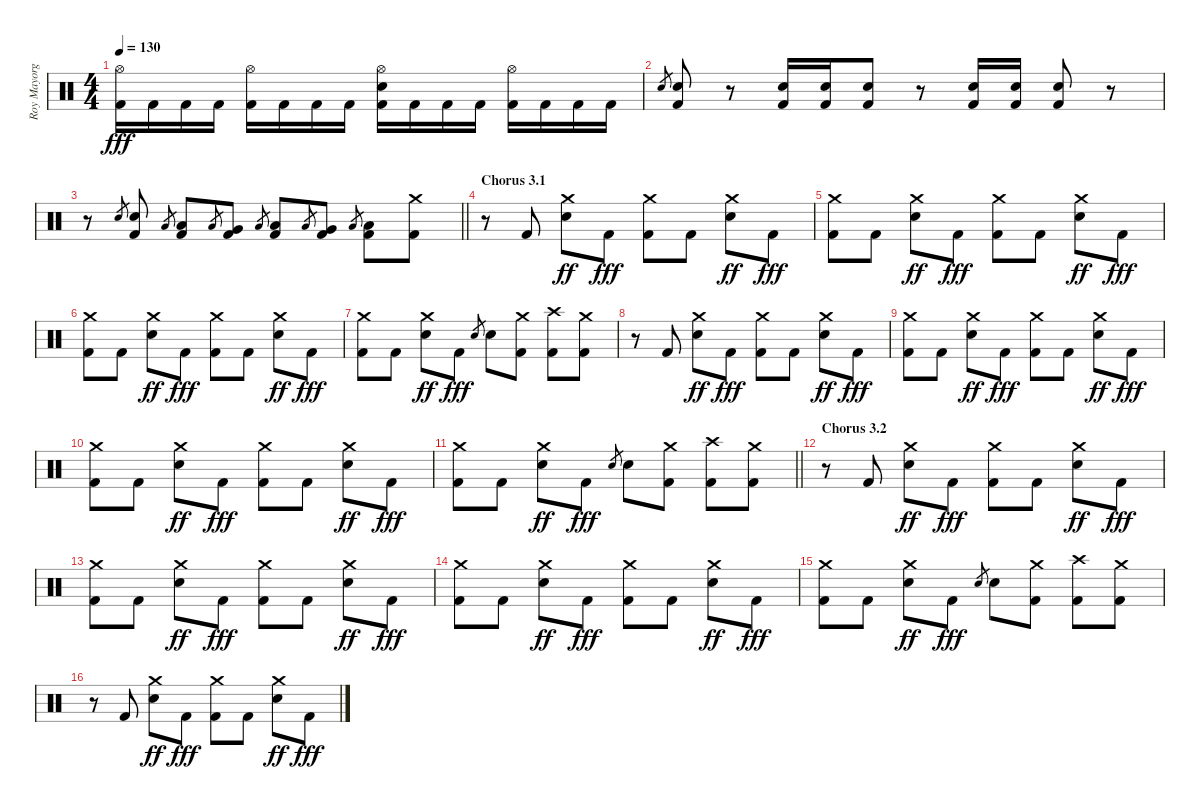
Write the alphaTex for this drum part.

\track ("Roy Mayorga" "Roy Mayorg") {instrument percussion}
\staff {score}
\articulation defaults
\ts (4 4)
\tempo 130
\clef neutral
\ks c
("Hi-Hat (open)" "Kick (hit) 2").16{dy fff} "Kick (hit) 2".16 "Kick (hit) 2".16 "Kick (hit) 2".16 ("Hi-Hat (open)" "Kick (hit) 2").16 "Kick (hit) 2".16 "Kick (hit) 2".16 "Kick (hit) 2".16 ("Hi-Hat (open)" "Electric Snare (hit)" "Kick (hit) 2").16 "Kick (hit) 2".16 "Kick (hit) 2".16 "Kick (hit) 2".16 ("Hi-Hat (open)" "Kick (hit) 2").16 "Kick (hit) 2".16 "Kick (hit) 2".16 "Kick (hit) 2".16 |
"Electric Snare (hit)".8{gr} ("Electric Snare (hit)" "Kick (hit) 2").8 r.8 ("Electric Snare (hit)" "Kick (hit) 2").16 ("Electric Snare (hit)" "Kick (hit) 2").16 ("Electric Snare (hit)" "Kick (hit) 2").8 r.8 ("Electric Snare (hit)" "Kick (hit) 2").16 ("Electric Snare (hit)" "Kick (hit) 2").16 ("Electric Snare (hit)" "Kick (hit) 2").8 r.8 |
\barLineRight lightlight
r.8 "Electric Snare (hit)".8{gr} ("Electric Snare (hit)" "Kick (hit) 2").8 "Low Floor Tom (hit)".8{gr} ("Low Tom (hit)" "Kick (hit) 2").8 "Low Floor Tom (hit)".8{gr} ("Very Low Tom (hit)" "Kick (hit) 2").8 "Low Floor Tom (hit)".8{gr} ("Low Tom (hit)" "Kick (hit) 2").8 "Low Floor Tom (hit)".8{gr} ("Very Low Tom (hit)" "Kick (hit) 2").8 "Low Floor Tom (hit)".8{gr} ("Low Floor Tom (hit)" "Kick (hit) 2").8 ("Crash medium (hit)" "Kick (hit) 2").8 |
\section ("" "Chorus 3.1")
r.8 "Kick (hit) 2".8 ("Crash medium (hit)" "Electric Snare (hit)").8{dy ff} "Kick (hit) 2".8{dy fff} ("Crash medium (hit)" "Kick (hit) 2").8 "Kick (hit) 2".8 ("Crash medium (hit)" "Electric Snare (hit)").8{dy ff} "Kick (hit) 2".8{dy fff} |
("Crash medium (hit)" "Kick (hit) 2").8 "Kick (hit) 2".8 ("Crash medium (hit)" "Electric Snare (hit)").8{dy ff} "Kick (hit) 2".8{dy fff} ("Crash medium (hit)" "Kick (hit) 2").8 "Kick (hit) 2".8 ("Crash medium (hit)" "Electric Snare (hit)").8{dy ff} "Kick (hit) 2".8{dy fff} |
("Crash medium (hit)" "Kick (hit) 2").8 "Kick (hit) 2".8 ("Crash medium (hit)" "Electric Snare (hit)").8{dy ff} "Kick (hit) 2".8{dy fff} ("Crash medium (hit)" "Kick (hit) 2").8 "Kick (hit) 2".8 ("Crash medium (hit)" "Electric Snare (hit)").8{dy ff} "Kick (hit) 2".8{dy fff} |
("Crash medium (hit)" "Kick (hit) 2").8 "Kick (hit) 2".8 ("Crash medium (hit)" "Electric Snare (hit)").8{dy ff} "Kick (hit) 2".8{dy fff} "Electric Snare (hit)".8{gr} "Electric Snare (hit)".8 ("Crash medium (hit)" "Kick (hit) 2").8 ("Crash high (hit)" "Kick (hit) 2").8 ("Crash medium (hit)" "Kick (hit) 2").8 |
r.8 "Kick (hit) 2".8 ("Crash medium (hit)" "Electric Snare (hit)").8{dy ff} "Kick (hit) 2".8{dy fff} ("Crash medium (hit)" "Kick (hit) 2").8 "Kick (hit) 2".8 ("Crash medium (hit)" "Electric Snare (hit)").8{dy ff} "Kick (hit) 2".8{dy fff} |
("Crash medium (hit)" "Kick (hit) 2").8 "Kick (hit) 2".8 ("Crash medium (hit)" "Electric Snare (hit)").8{dy ff} "Kick (hit) 2".8{dy fff} ("Crash medium (hit)" "Kick (hit) 2").8 "Kick (hit) 2".8 ("Crash medium (hit)" "Electric Snare (hit)").8{dy ff} "Kick (hit) 2".8{dy fff} |
("Crash medium (hit)" "Kick (hit) 2").8 "Kick (hit) 2".8 ("Crash medium (hit)" "Electric Snare (hit)").8{dy ff} "Kick (hit) 2".8{dy fff} ("Crash medium (hit)" "Kick (hit) 2").8 "Kick (hit) 2".8 ("Crash medium (hit)" "Electric Snare (hit)").8{dy ff} "Kick (hit) 2".8{dy fff} |
\barLineRight lightlight
("Crash medium (hit)" "Kick (hit) 2").8 "Kick (hit) 2".8 ("Crash medium (hit)" "Electric Snare (hit)").8{dy ff} "Kick (hit) 2".8{dy fff} "Electric Snare (hit)".8{gr} "Electric Snare (hit)".8 ("Crash medium (hit)" "Kick (hit) 2").8 ("Crash high (hit)" "Kick (hit) 2").8 ("Crash medium (hit)" "Kick (hit) 2").8 |
\section ("" "Chorus 3.2")
r.8 "Kick (hit) 2".8 ("Crash medium (hit)" "Electric Snare (hit)").8{dy ff} "Kick (hit) 2".8{dy fff} ("Crash medium (hit)" "Kick (hit) 2").8 "Kick (hit) 2".8 ("Crash medium (hit)" "Electric Snare (hit)").8{dy ff} "Kick (hit) 2".8{dy fff} |
("Crash medium (hit)" "Kick (hit) 2").8 "Kick (hit) 2".8 ("Crash medium (hit)" "Electric Snare (hit)").8{dy ff} "Kick (hit) 2".8{dy fff} ("Crash medium (hit)" "Kick (hit) 2").8 "Kick (hit) 2".8 ("Crash medium (hit)" "Electric Snare (hit)").8{dy ff} "Kick (hit) 2".8{dy fff} |
("Crash medium (hit)" "Kick (hit) 2").8 "Kick (hit) 2".8 ("Crash medium (hit)" "Electric Snare (hit)").8{dy ff} "Kick (hit) 2".8{dy fff} ("Crash medium (hit)" "Kick (hit) 2").8 "Kick (hit) 2".8 ("Crash medium (hit)" "Electric Snare (hit)").8{dy ff} "Kick (hit) 2".8{dy fff} |
("Crash medium (hit)" "Kick (hit) 2").8 "Kick (hit) 2".8 ("Crash medium (hit)" "Electric Snare (hit)").8{dy ff} "Kick (hit) 2".8{dy fff} "Electric Snare (hit)".8{gr} "Electric Snare (hit)".8 ("Crash medium (hit)" "Kick (hit) 2").8 ("Crash high (hit)" "Kick (hit) 2").8 ("Crash medium (hit)" "Kick (hit) 2").8 |
r.8 "Kick (hit) 2".8 ("Crash medium (hit)" "Electric Snare (hit)").8{dy ff} "Kick (hit) 2".8{dy fff} ("Crash medium (hit)" "Kick (hit) 2").8 "Kick (hit) 2".8 ("Crash medium (hit)" "Electric Snare (hit)").8{dy ff} "Kick (hit) 2".8{dy fff}
